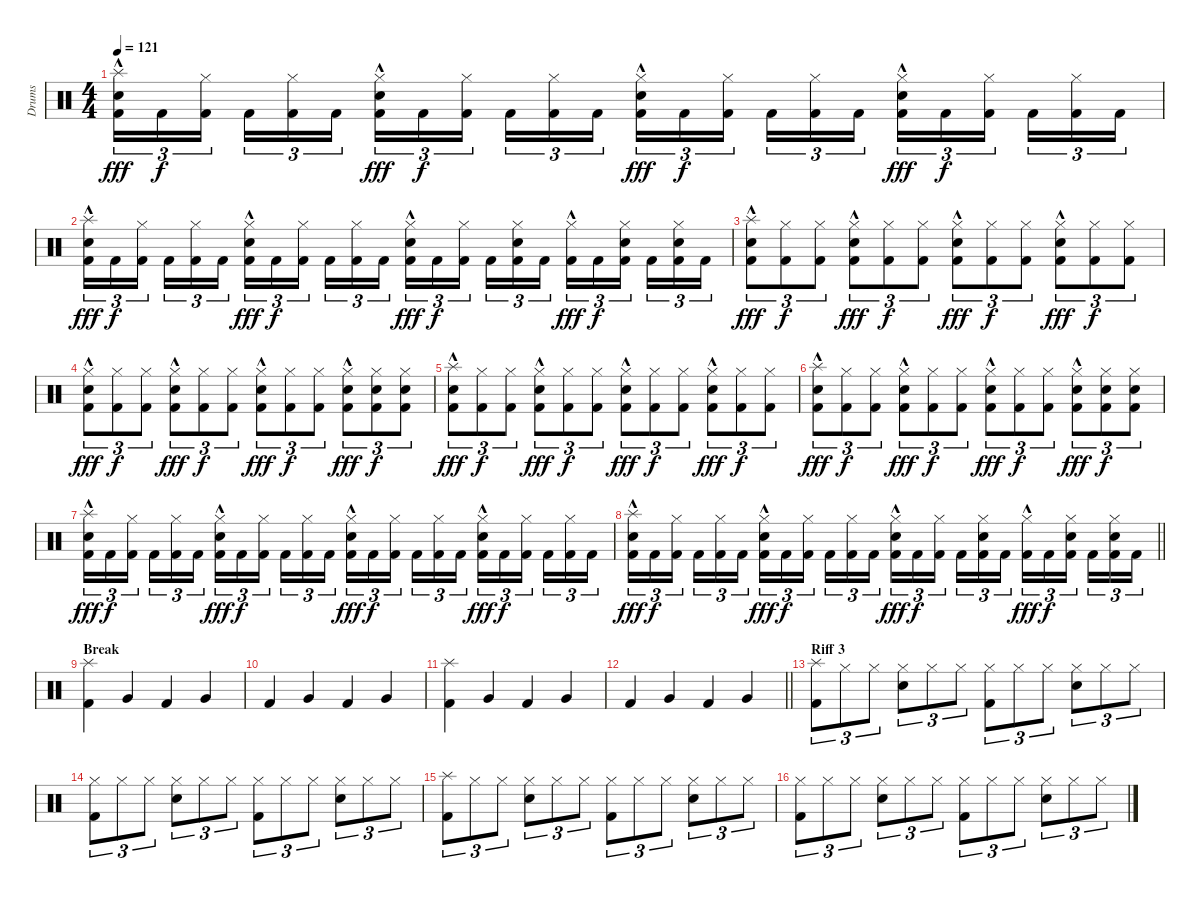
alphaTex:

\track ("Drums" "Drums") {instrument percussion}
\staff {score}
\articulation defaults
\ts (4 4)
\tempo 121
\clef neutral
\ks c
("Kick (hit) 2" "Snare (hit) 2"{hac} "Splash (hit)"{hac}).16{tu (3 2) dy fff} "Kick (hit) 2".16{tu (3 2) dy f} ("Kick (hit) 2" "Hi-Hat (closed)").16{tu (3 2) beam splitsecondary} "Kick (hit) 2".16{tu (3 2)} ("Kick (hit) 2" "Hi-Hat (closed)").16{tu (3 2)} "Kick (hit) 2".16{tu (3 2)} ("Kick (hit) 2" "Snare (hit) 2"{hac} "Hi-Hat (closed)"{hac}).16{tu (3 2) dy fff} "Kick (hit) 2".16{tu (3 2) dy f} ("Kick (hit) 2" "Hi-Hat (closed)").16{tu (3 2) beam splitsecondary} "Kick (hit) 2".16{tu (3 2)} ("Kick (hit) 2" "Hi-Hat (closed)").16{tu (3 2)} "Kick (hit) 2".16{tu (3 2)} ("Kick (hit) 2" "Snare (hit) 2"{hac} "Hi-Hat (closed)"{hac}).16{tu (3 2) dy fff} "Kick (hit) 2".16{tu (3 2) dy f} ("Kick (hit) 2" "Hi-Hat (closed)").16{tu (3 2) beam splitsecondary} "Kick (hit) 2".16{tu (3 2)} ("Kick (hit) 2" "Hi-Hat (closed)").16{tu (3 2)} "Kick (hit) 2".16{tu (3 2)} ("Kick (hit) 2" "Snare (hit) 2"{hac} "Hi-Hat (closed)"{hac}).16{tu (3 2) dy fff} "Kick (hit) 2".16{tu (3 2) dy f} ("Kick (hit) 2" "Hi-Hat (closed)").16{tu (3 2) beam splitsecondary} "Kick (hit) 2".16{tu (3 2)} ("Kick (hit) 2" "Hi-Hat (closed)").16{tu (3 2)} "Kick (hit) 2".16{tu (3 2)} |
("Kick (hit) 2" "Snare (hit) 2"{hac} "Splash (hit)"{hac}).16{tu (3 2) dy fff} "Kick (hit) 2".16{tu (3 2) dy f} ("Kick (hit) 2" "Hi-Hat (closed)").16{tu (3 2) beam splitsecondary} "Kick (hit) 2".16{tu (3 2)} ("Kick (hit) 2" "Hi-Hat (closed)").16{tu (3 2)} "Kick (hit) 2".16{tu (3 2)} ("Kick (hit) 2" "Snare (hit) 2"{hac} "Hi-Hat (closed)"{hac}).16{tu (3 2) dy fff} "Kick (hit) 2".16{tu (3 2) dy f} ("Kick (hit) 2" "Hi-Hat (closed)").16{tu (3 2) beam splitsecondary} "Kick (hit) 2".16{tu (3 2)} ("Kick (hit) 2" "Hi-Hat (closed)").16{tu (3 2)} "Kick (hit) 2".16{tu (3 2)} ("Kick (hit) 2" "Snare (hit) 2"{hac} "Hi-Hat (closed)"{hac}).16{tu (3 2) dy fff} "Kick (hit) 2".16{tu (3 2) dy f} ("Kick (hit) 2" "Hi-Hat (closed)").16{tu (3 2) beam splitsecondary} "Kick (hit) 2".16{tu (3 2)} ("Kick (hit) 2" "Snare (hit) 2" "Hi-Hat (closed)").16{tu (3 2)} "Kick (hit) 2".16{tu (3 2)} ("Kick (hit) 2" "Hi-Hat (closed)"{hac}).16{tu (3 2) dy fff} "Kick (hit) 2".16{tu (3 2) dy f} ("Kick (hit) 2" "Snare (hit) 2" "Hi-Hat (closed)").16{tu (3 2) beam splitsecondary} "Kick (hit) 2".16{tu (3 2)} ("Kick (hit) 2" "Snare (hit) 2" "Hi-Hat (closed)").16{tu (3 2)} "Kick (hit) 2".16{tu (3 2)} |
("Kick (hit) 2" "Snare (hit) 2"{hac} "Splash (hit)"{hac}).8{tu (3 2) dy fff} ("Kick (hit) 2" "Hi-Hat (closed)").8{tu (3 2) dy f} ("Kick (hit) 2" "Hi-Hat (closed)").8{tu (3 2)} ("Kick (hit) 2" "Snare (hit) 2"{hac} "Hi-Hat (closed)"{hac}).8{tu (3 2) dy fff} ("Kick (hit) 2" "Hi-Hat (closed)").8{tu (3 2) dy f} ("Kick (hit) 2" "Hi-Hat (closed)").8{tu (3 2)} ("Kick (hit) 2" "Snare (hit) 2"{hac} "Hi-Hat (closed)"{hac}).8{tu (3 2) dy fff} ("Kick (hit) 2" "Hi-Hat (closed)").8{tu (3 2) dy f} ("Kick (hit) 2" "Hi-Hat (closed)").8{tu (3 2)} ("Kick (hit) 2" "Snare (hit) 2"{hac} "Hi-Hat (closed)"{hac}).8{tu (3 2) dy fff} ("Kick (hit) 2" "Hi-Hat (closed)").8{tu (3 2) dy f} ("Kick (hit) 2" "Hi-Hat (closed)").8{tu (3 2)} |
("Kick (hit) 2" "Snare (hit) 2"{hac} "Hi-Hat (closed)"{hac}).8{tu (3 2) dy fff} ("Kick (hit) 2" "Hi-Hat (closed)").8{tu (3 2) dy f} ("Kick (hit) 2" "Hi-Hat (closed)").8{tu (3 2)} ("Kick (hit) 2" "Snare (hit) 2"{hac} "Hi-Hat (closed)"{hac}).8{tu (3 2) dy fff} ("Kick (hit) 2" "Hi-Hat (closed)").8{tu (3 2) dy f} ("Kick (hit) 2" "Hi-Hat (closed)").8{tu (3 2)} ("Kick (hit) 2" "Snare (hit) 2"{hac} "Hi-Hat (closed)"{hac}).8{tu (3 2) dy fff} ("Kick (hit) 2" "Hi-Hat (closed)").8{tu (3 2) dy f} ("Kick (hit) 2" "Hi-Hat (closed)").8{tu (3 2)} ("Kick (hit) 2" "Snare (hit) 2"{hac} "Hi-Hat (closed)"{hac}).8{tu (3 2) dy fff} ("Kick (hit) 2" "Snare (hit) 2" "Hi-Hat (closed)").8{tu (3 2) dy f} ("Kick (hit) 2" "Snare (hit) 2" "Hi-Hat (closed)").8{tu (3 2)} |
("Kick (hit) 2" "Snare (hit) 2"{hac} "Splash (hit)"{hac}).8{tu (3 2) dy fff} ("Kick (hit) 2" "Hi-Hat (closed)").8{tu (3 2) dy f} ("Kick (hit) 2" "Hi-Hat (closed)").8{tu (3 2)} ("Kick (hit) 2" "Snare (hit) 2"{hac} "Hi-Hat (closed)"{hac}).8{tu (3 2) dy fff} ("Kick (hit) 2" "Hi-Hat (closed)").8{tu (3 2) dy f} ("Kick (hit) 2" "Hi-Hat (closed)").8{tu (3 2)} ("Kick (hit) 2" "Snare (hit) 2"{hac} "Hi-Hat (closed)"{hac}).8{tu (3 2) dy fff} ("Kick (hit) 2" "Hi-Hat (closed)").8{tu (3 2) dy f} ("Kick (hit) 2" "Hi-Hat (closed)").8{tu (3 2)} ("Kick (hit) 2" "Snare (hit) 2"{hac} "Hi-Hat (closed)"{hac}).8{tu (3 2) dy fff} ("Kick (hit) 2" "Hi-Hat (closed)").8{tu (3 2) dy f} ("Kick (hit) 2" "Hi-Hat (closed)").8{tu (3 2)} |
("Kick (hit) 2" "Snare (hit) 2"{hac} "Splash (hit)"{hac}).8{tu (3 2) dy fff} ("Kick (hit) 2" "Hi-Hat (closed)").8{tu (3 2) dy f} ("Kick (hit) 2" "Hi-Hat (closed)").8{tu (3 2)} ("Kick (hit) 2" "Snare (hit) 2"{hac} "Hi-Hat (closed)"{hac}).8{tu (3 2) dy fff} ("Kick (hit) 2" "Hi-Hat (closed)").8{tu (3 2) dy f} ("Kick (hit) 2" "Hi-Hat (closed)").8{tu (3 2)} ("Kick (hit) 2" "Snare (hit) 2"{hac} "Hi-Hat (closed)"{hac}).8{tu (3 2) dy fff} ("Kick (hit) 2" "Hi-Hat (closed)").8{tu (3 2) dy f} ("Kick (hit) 2" "Hi-Hat (closed)").8{tu (3 2)} ("Kick (hit) 2" "Snare (hit) 2"{hac} "Hi-Hat (closed)"{hac}).8{tu (3 2) dy fff} ("Kick (hit) 2" "Snare (hit) 2" "Hi-Hat (closed)").8{tu (3 2) dy f} ("Kick (hit) 2" "Snare (hit) 2" "Hi-Hat (closed)").8{tu (3 2)} |
("Kick (hit) 2" "Snare (hit) 2"{hac} "Splash (hit)"{hac}).16{tu (3 2) dy fff} "Kick (hit) 2".16{tu (3 2) dy f} ("Kick (hit) 2" "Hi-Hat (closed)").16{tu (3 2) beam splitsecondary} "Kick (hit) 2".16{tu (3 2)} ("Kick (hit) 2" "Hi-Hat (closed)").16{tu (3 2)} "Kick (hit) 2".16{tu (3 2)} ("Kick (hit) 2" "Snare (hit) 2"{hac} "Hi-Hat (closed)"{hac}).16{tu (3 2) dy fff} "Kick (hit) 2".16{tu (3 2) dy f} ("Kick (hit) 2" "Hi-Hat (closed)").16{tu (3 2) beam splitsecondary} "Kick (hit) 2".16{tu (3 2)} ("Kick (hit) 2" "Hi-Hat (closed)").16{tu (3 2)} "Kick (hit) 2".16{tu (3 2)} ("Kick (hit) 2" "Snare (hit) 2"{hac} "Hi-Hat (closed)"{hac}).16{tu (3 2) dy fff} "Kick (hit) 2".16{tu (3 2) dy f} ("Kick (hit) 2" "Hi-Hat (closed)").16{tu (3 2) beam splitsecondary} "Kick (hit) 2".16{tu (3 2)} ("Kick (hit) 2" "Hi-Hat (closed)").16{tu (3 2)} "Kick (hit) 2".16{tu (3 2)} ("Kick (hit) 2" "Snare (hit) 2"{hac} "Hi-Hat (closed)"{hac}).16{tu (3 2) dy fff} "Kick (hit) 2".16{tu (3 2) dy f} ("Kick (hit) 2" "Hi-Hat (closed)").16{tu (3 2) beam splitsecondary} "Kick (hit) 2".16{tu (3 2)} ("Kick (hit) 2" "Hi-Hat (closed)").16{tu (3 2)} "Kick (hit) 2".16{tu (3 2)} |
\barLineRight lightlight
("Kick (hit) 2" "Snare (hit) 2"{hac} "Splash (hit)"{hac}).16{tu (3 2) dy fff} "Kick (hit) 2".16{tu (3 2) dy f} ("Kick (hit) 2" "Hi-Hat (closed)").16{tu (3 2) beam splitsecondary} "Kick (hit) 2".16{tu (3 2)} ("Kick (hit) 2" "Hi-Hat (closed)").16{tu (3 2)} "Kick (hit) 2".16{tu (3 2)} ("Kick (hit) 2" "Snare (hit) 2"{hac} "Hi-Hat (closed)"{hac}).16{tu (3 2) dy fff} "Kick (hit) 2".16{tu (3 2) dy f} ("Kick (hit) 2" "Hi-Hat (closed)").16{tu (3 2) beam splitsecondary} "Kick (hit) 2".16{tu (3 2)} ("Kick (hit) 2" "Hi-Hat (closed)").16{tu (3 2)} "Kick (hit) 2".16{tu (3 2)} ("Kick (hit) 2" "Snare (hit) 2"{hac} "Hi-Hat (closed)"{hac}).16{tu (3 2) dy fff} "Kick (hit) 2".16{tu (3 2) dy f} ("Kick (hit) 2" "Hi-Hat (closed)").16{tu (3 2) beam splitsecondary} "Kick (hit) 2".16{tu (3 2)} ("Kick (hit) 2" "Snare (hit) 2" "Hi-Hat (closed)").16{tu (3 2)} "Kick (hit) 2".16{tu (3 2)} ("Kick (hit) 2" "Hi-Hat (closed)"{hac}).16{tu (3 2) dy fff} "Kick (hit) 2".16{tu (3 2) dy f} ("Kick (hit) 2" "Snare (hit) 2" "Hi-Hat (closed)").16{tu (3 2) beam splitsecondary} "Kick (hit) 2".16{tu (3 2)} ("Kick (hit) 2" "Snare (hit) 2" "Hi-Hat (closed)").16{tu (3 2)} "Kick (hit) 2".16{tu (3 2)} |
\section ("" "Break")
("Splash (hit)" "Kick (hit) 2").4 "Very Low Tom (hit)".4 "Kick (hit) 2".4 "Very Low Tom (hit)".4 |
"Kick (hit) 2".4 "Very Low Tom (hit)".4 "Kick (hit) 2".4 "Very Low Tom (hit)".4 |
("Splash (hit)" "Kick (hit) 2").4 "Very Low Tom (hit)".4 "Kick (hit) 2".4 "Very Low Tom (hit)".4 |
\barLineRight lightlight "Kick (hit) 2".4 "Very Low Tom (hit)".4 "Kick (hit) 2".4 "Very Low Tom (hit)".4
|
\section ("" "Riff 3")
("Kick (hit) 2" "Splash (hit)").8{tu (3 2)} "Hi-Hat (closed)".8{tu (3 2)} "Hi-Hat (closed)".8{tu (3 2)} ("Snare (hit) 2" "Hi-Hat (closed)").8{tu (3 2)} "Hi-Hat (closed)".8{tu (3 2)} "Hi-Hat (closed)".8{tu (3 2)} ("Kick (hit) 2" "Hi-Hat (closed)").8{tu (3 2)} "Hi-Hat (closed)".8{tu (3 2)} "Hi-Hat (closed)".8{tu (3 2)} ("Snare (hit) 2" "Hi-Hat (closed)").8{tu (3 2)} "Hi-Hat (closed)".8{tu (3 2)} "Hi-Hat (closed)".8{tu (3 2)} |
("Kick (hit) 2" "Hi-Hat (closed)").8{tu (3 2)} "Hi-Hat (closed)".8{tu (3 2)} "Hi-Hat (closed)".8{tu (3 2)} ("Snare (hit) 2" "Hi-Hat (closed)").8{tu (3 2)} "Hi-Hat (closed)".8{tu (3 2)} "Hi-Hat (closed)".8{tu (3 2)} ("Kick (hit) 2" "Hi-Hat (closed)").8{tu (3 2)} "Hi-Hat (closed)".8{tu (3 2)} "Hi-Hat (closed)".8{tu (3 2)} ("Snare (hit) 2" "Hi-Hat (closed)").8{tu (3 2)} "Hi-Hat (closed)".8{tu (3 2)} "Hi-Hat (closed)".8{tu (3 2)} |
("Kick (hit) 2" "Splash (hit)").8{tu (3 2)} "Hi-Hat (closed)".8{tu (3 2)} "Hi-Hat (closed)".8{tu (3 2)} ("Snare (hit) 2" "Hi-Hat (closed)").8{tu (3 2)} "Hi-Hat (closed)".8{tu (3 2)} "Hi-Hat (closed)".8{tu (3 2)} ("Kick (hit) 2" "Hi-Hat (closed)").8{tu (3 2)} "Hi-Hat (closed)".8{tu (3 2)} "Hi-Hat (closed)".8{tu (3 2)} ("Snare (hit) 2" "Hi-Hat (closed)").8{tu (3 2)} "Hi-Hat (closed)".8{tu (3 2)} "Hi-Hat (closed)".8{tu (3 2)} |
("Kick (hit) 2" "Hi-Hat (closed)").8{tu (3 2)} "Hi-Hat (closed)".8{tu (3 2)} "Hi-Hat (closed)".8{tu (3 2)} ("Snare (hit) 2" "Hi-Hat (closed)").8{tu (3 2)} "Hi-Hat (closed)".8{tu (3 2)} "Hi-Hat (closed)".8{tu (3 2)} ("Kick (hit) 2" "Hi-Hat (closed)").8{tu (3 2)} "Hi-Hat (closed)".8{tu (3 2)} "Hi-Hat (closed)".8{tu (3 2)} ("Snare (hit) 2" "Hi-Hat (closed)").8{tu (3 2)} "Hi-Hat (closed)".8{tu (3 2)} "Hi-Hat (closed)".8{tu (3 2)}
